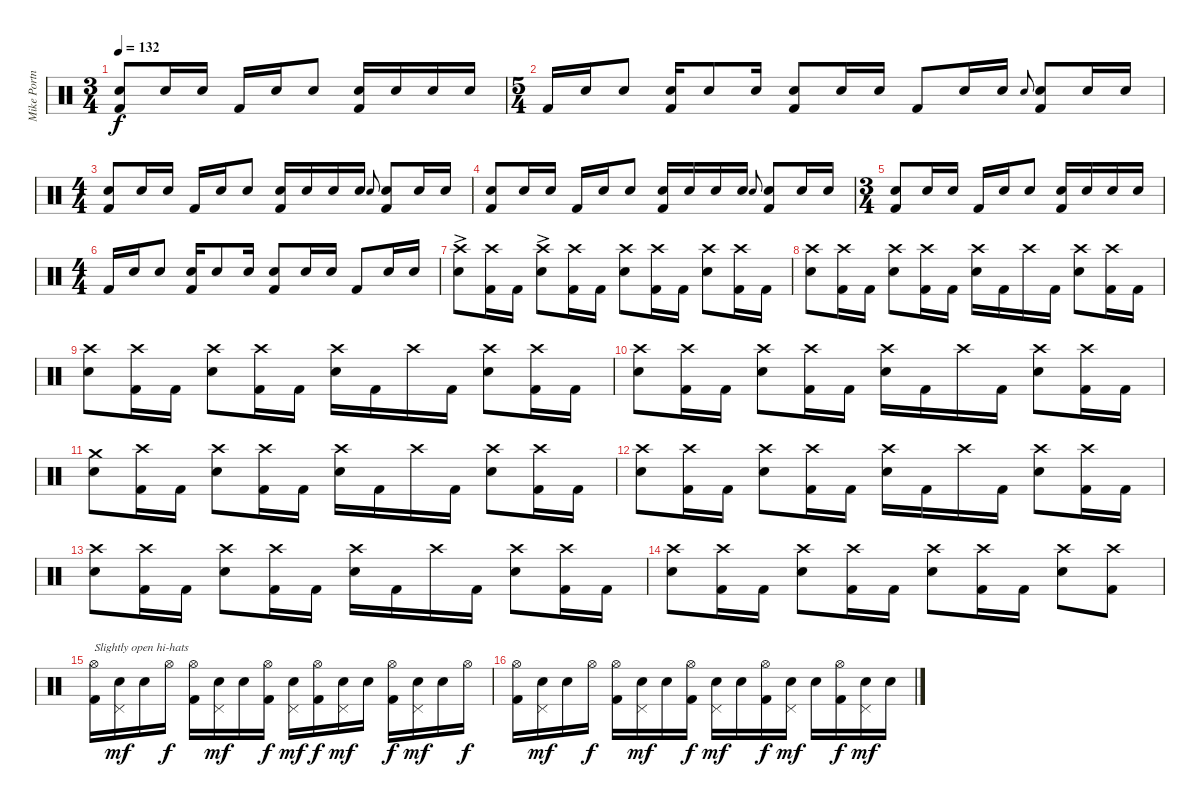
\track ("Mike Portnoy" "Mike Portn") {instrument percussion}
\staff {score}
\articulation defaults
\ts (3 4)
\tempo 132
\clef neutral
\ks c
("Electric Snare (hit)" "Kick (hit) 2").8{dy f} "Electric Snare (hit)".16 "Electric Snare (hit)".16 "Kick (hit) 2".16 "Electric Snare (hit)".16 "Electric Snare (hit)".8 ("Electric Snare (hit)" "Kick (hit) 2").16 "Electric Snare (hit)".16 "Electric Snare (hit)".16 "Electric Snare (hit)".16 |
\ts (5 4)
"Kick (hit) 2".16 "Electric Snare (hit)".16 "Electric Snare (hit)".8 ("Electric Snare (hit)" "Kick (hit) 2").16 "Electric Snare (hit)".8 "Electric Snare (hit)".16 ("Electric Snare (hit)" "Kick (hit) 2").8 "Electric Snare (hit)".16 "Electric Snare (hit)".16 "Kick (hit) 2".8 "Electric Snare (hit)".16 "Electric Snare (hit)".16 "Electric Snare (hit)".8{gr onbeat} ("Electric Snare (hit)" "Kick (hit) 2").8 "Electric Snare (hit)".16 "Electric Snare (hit)".16 |
\ts (4 4)
("Electric Snare (hit)" "Kick (hit) 2").8 "Electric Snare (hit)".16 "Electric Snare (hit)".16 "Kick (hit) 2".16 "Electric Snare (hit)".16 "Electric Snare (hit)".8 ("Electric Snare (hit)" "Kick (hit) 2").16 "Electric Snare (hit)".16 "Electric Snare (hit)".16 "Electric Snare (hit)".16 "Electric Snare (hit)".8{gr onbeat} ("Electric Snare (hit)" "Kick (hit) 2").8 "Electric Snare (hit)".16 "Electric Snare (hit)".16 |
("Electric Snare (hit)" "Kick (hit) 2").8 "Electric Snare (hit)".16 "Electric Snare (hit)".16 "Kick (hit) 2".16 "Electric Snare (hit)".16 "Electric Snare (hit)".8 ("Electric Snare (hit)" "Kick (hit) 2").16 "Electric Snare (hit)".16 "Electric Snare (hit)".16 "Electric Snare (hit)".16 "Electric Snare (hit)".8{gr onbeat} ("Electric Snare (hit)" "Kick (hit) 2").8 "Electric Snare (hit)".16 "Electric Snare (hit)".16 |
\ts (3 4)
("Electric Snare (hit)" "Kick (hit) 2").8 "Electric Snare (hit)".16 "Electric Snare (hit)".16 "Kick (hit) 2".16 "Electric Snare (hit)".16 "Electric Snare (hit)".8 ("Electric Snare (hit)" "Kick (hit) 2").16 "Electric Snare (hit)".16 "Electric Snare (hit)".16 "Electric Snare (hit)".16 |
\ts (4 4)
"Kick (hit) 2".16 "Electric Snare (hit)".16 "Electric Snare (hit)".8 ("Electric Snare (hit)" "Kick (hit) 2").16 "Electric Snare (hit)".8 "Electric Snare (hit)".16 ("Electric Snare (hit)" "Kick (hit) 2").8 "Electric Snare (hit)".16 "Electric Snare (hit)".16 "Kick (hit) 2".8 "Electric Snare (hit)".16 "Electric Snare (hit)".16 |
("Crash high (hit)"{ac} "Electric Snare (hit)").8 ("Crash high (hit)" "Kick (hit) 2").16 "Kick (hit) 2".16 ("Crash high (hit)"{ac} "Electric Snare (hit)").8 ("Crash high (hit)" "Kick (hit) 2").16 "Kick (hit) 2".16 ("Crash high (hit)" "Electric Snare (hit)").8 ("Crash high (hit)" "Kick (hit) 2").16 "Kick (hit) 2".16 ("Crash high (hit)" "Electric Snare (hit)").8 ("Crash high (hit)" "Kick (hit) 2").16 "Kick (hit) 2".16 |
("Crash high (hit)" "Electric Snare (hit)").8 ("Crash high (hit)" "Kick (hit) 2").16 "Kick (hit) 2".16 ("Crash high (hit)" "Electric Snare (hit)").8 ("Crash high (hit)" "Kick (hit) 2").16 "Kick (hit) 2".16 ("Crash high (hit)" "Electric Snare (hit)").16 "Kick (hit) 2".16 "Crash high (hit)".16 "Kick (hit) 2".16 ("Crash high (hit)" "Electric Snare (hit)").8 ("Crash high (hit)" "Kick (hit) 2").16 "Kick (hit) 2".16 |
("Crash high (hit)" "Electric Snare (hit)").8 ("Crash high (hit)" "Kick (hit) 2").16 "Kick (hit) 2".16 ("Crash high (hit)" "Electric Snare (hit)").8 ("Crash high (hit)" "Kick (hit) 2").16 "Kick (hit) 2".16 ("Crash high (hit)" "Electric Snare (hit)").16 "Kick (hit) 2".16 "Crash high (hit)".16 "Kick (hit) 2".16 ("Crash high (hit)" "Electric Snare (hit)").8 ("Crash high (hit)" "Kick (hit) 2").16 "Kick (hit) 2".16 |
("Crash high (hit)" "Electric Snare (hit)").8 ("Crash high (hit)" "Kick (hit) 2").16 "Kick (hit) 2".16 ("Crash high (hit)" "Electric Snare (hit)").8 ("Crash high (hit)" "Kick (hit) 2").16 "Kick (hit) 2".16 ("Crash high (hit)" "Electric Snare (hit)").16 "Kick (hit) 2".16 "Crash high (hit)".16 "Kick (hit) 2".16 ("Crash high (hit)" "Electric Snare (hit)").8 ("Crash high (hit)" "Kick (hit) 2").16 "Kick (hit) 2".16 |
("Crash medium (hit)" "Electric Snare (hit)").8 ("Crash high (hit)" "Kick (hit) 2").16 "Kick (hit) 2".16 ("Crash high (hit)" "Electric Snare (hit)").8 ("Crash high (hit)" "Kick (hit) 2").16 "Kick (hit) 2".16 ("Crash high (hit)" "Electric Snare (hit)").16 "Kick (hit) 2".16 "Crash high (hit)".16 "Kick (hit) 2".16 ("Crash high (hit)" "Electric Snare (hit)").8 ("Crash high (hit)" "Kick (hit) 2").16 "Kick (hit) 2".16 |
("Crash high (hit)" "Electric Snare (hit)").8 ("Crash high (hit)" "Kick (hit) 2").16 "Kick (hit) 2".16 ("Crash high (hit)" "Electric Snare (hit)").8 ("Crash high (hit)" "Kick (hit) 2").16 "Kick (hit) 2".16 ("Crash high (hit)" "Electric Snare (hit)").16 "Kick (hit) 2".16 "Crash high (hit)".16 "Kick (hit) 2".16 ("Crash high (hit)" "Electric Snare (hit)").8 ("Crash high (hit)" "Kick (hit) 2").16 "Kick (hit) 2".16 |
("Crash high (hit)" "Electric Snare (hit)").8 ("Crash high (hit)" "Kick (hit) 2").16 "Kick (hit) 2".16 ("Crash high (hit)" "Electric Snare (hit)").8 ("Crash high (hit)" "Kick (hit) 2").16 "Kick (hit) 2".16 ("Crash high (hit)" "Electric Snare (hit)").16 "Kick (hit) 2".16 "Crash high (hit)".16 "Kick (hit) 2".16 ("Crash high (hit)" "Electric Snare (hit)").8 ("Crash high (hit)" "Kick (hit) 2").16 "Kick (hit) 2".16 |
("Crash high (hit)" "Electric Snare (hit)").8 ("Crash high (hit)" "Kick (hit) 2").16 "Kick (hit) 2".16 ("Crash high (hit)" "Electric Snare (hit)").8 ("Crash high (hit)" "Kick (hit) 2").16 "Kick (hit) 2".16 ("Crash high (hit)" "Electric Snare (hit)").8 ("Crash high (hit)" "Kick (hit) 2").16 "Kick (hit) 2".16 ("Crash high (hit)" "Electric Snare (hit)").8 ("Crash high (hit)" "Kick (hit) 2").8 |
("Hi-Hat (open)" "Kick (hit) 2").16{txt "Slightly open hi-hats"} ("Pedal Hi-Hat (hit)" "Electric Snare (hit)").16{dy mf} "Electric Snare (hit)".16 "Hi-Hat (open)".16{dy f} ("Hi-Hat (open)" "Kick (hit) 2").16 ("Pedal Hi-Hat (hit)" "Electric Snare (hit)").16{dy mf} "Electric Snare (hit)".16 ("Hi-Hat (open)" "Kick (hit) 2").16{dy f} ("Pedal Hi-Hat (hit)" "Electric Snare (hit)").16{dy mf} ("Hi-Hat (open)" "Kick (hit) 2").16{dy f} ("Pedal Hi-Hat (hit)" "Electric Snare (hit)").16{dy mf} "Electric Snare (hit)".16 ("Hi-Hat (open)" "Kick (hit) 2").16{dy f} ("Pedal Hi-Hat (hit)" "Electric Snare (hit)").16{dy mf} "Electric Snare (hit)".16 "Hi-Hat (open)".16{dy f} |
("Hi-Hat (open)" "Kick (hit) 2").16 ("Pedal Hi-Hat (hit)" "Electric Snare (hit)").16{dy mf} "Electric Snare (hit)".16 "Hi-Hat (open)".16{dy f} ("Hi-Hat (open)" "Kick (hit) 2").16 ("Pedal Hi-Hat (hit)" "Electric Snare (hit)").16{dy mf} "Electric Snare (hit)".16 ("Hi-Hat (open)" "Kick (hit) 2").16{dy f} ("Pedal Hi-Hat (hit)" "Electric Snare (hit)").16{dy mf} "Electric Snare (hit)".16 ("Hi-Hat (open)" "Kick (hit) 2").16{dy f} ("Pedal Hi-Hat (hit)" "Electric Snare (hit)").16{dy mf} "Electric Snare (hit)".16 ("Hi-Hat (open)" "Kick (hit) 2").16{dy f} ("Pedal Hi-Hat (hit)" "Electric Snare (hit)").16{dy mf} "Electric Snare (hit)".16
